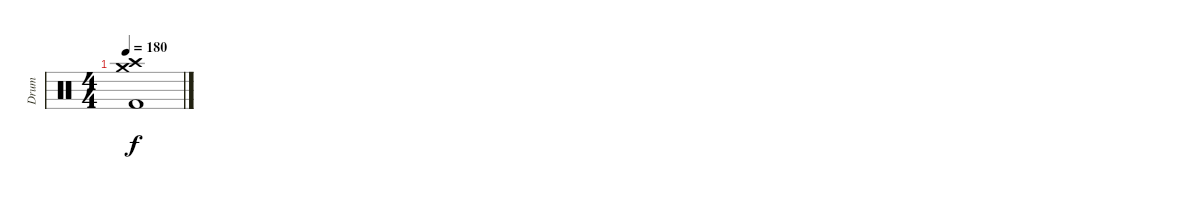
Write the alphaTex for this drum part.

\track ("Drum" "Drum") {instrument percussion}
\staff {score}
\articulation defaults
\ts (4 4)
\tempo 180
\clef neutral
\ks c
("Crash high (hit)" "Crash medium (hit)" "Kick (hit) 2").1{dy f}
